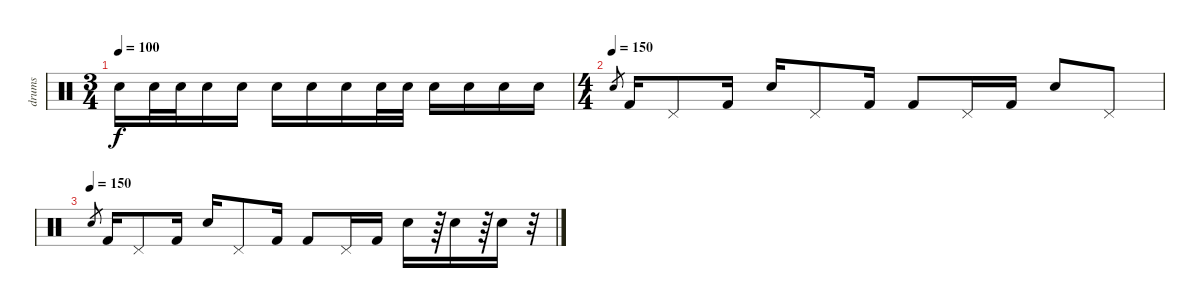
\track ("drums" "drums") {instrument percussion}
\staff {score}
\articulation defaults
\ts (3 4)
\tempo 100
\clef neutral
\ks c "Electric Snare (hit)".16{dy f} "Electric Snare (hit)".32 "Electric Snare (hit)".32{volume 10} "Electric Snare (hit)".16 "Electric Snare (hit)".16 "Electric Snare (hit)".16 "Electric Snare (hit)".16 "Electric Snare (hit)".16{volume 12} "Electric Snare (hit)".32 "Electric Snare (hit)".32 "Electric Snare (hit)".16 "Electric Snare (hit)".16 "Electric Snare (hit)".16 "Electric Snare (hit)".16{volume 13}
|
\ts (4 4)
\tempo (150)
"Electric Snare (hit)".8{gr} "Kick (hit) 2".16 "Pedal Hi-Hat (hit)".8 "Kick (hit) 2".16 "Electric Snare (hit)".16 "Pedal Hi-Hat (hit)".8 "Kick (hit) 2".16 "Kick (hit) 2".8 "Pedal Hi-Hat (hit)".16 "Kick (hit) 2".16 "Electric Snare (hit)".8 "Pedal Hi-Hat (hit)".8 |
\tempo (150)
"Electric Snare (hit)".8{gr} "Kick (hit) 2".16 "Pedal Hi-Hat (hit)".8 "Kick (hit) 2".16 "Electric Snare (hit)".16 "Pedal Hi-Hat (hit)".8 "Kick (hit) 2".16 "Kick (hit) 2".8 "Pedal Hi-Hat (hit)".16 "Kick (hit) 2".16 "Electric Snare (hit)".16 r.64 "Electric Snare (hit)".16 r.64 "Electric Snare (hit)".16 r.32
